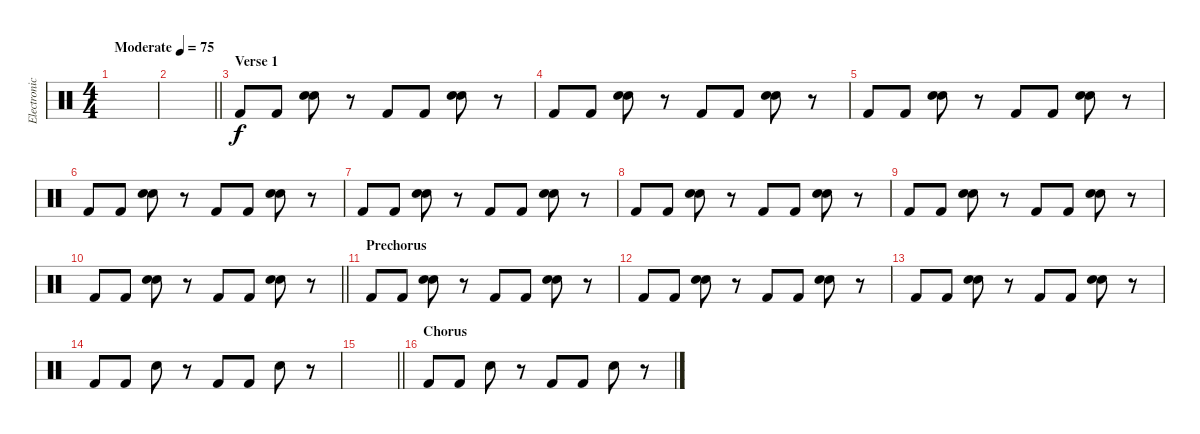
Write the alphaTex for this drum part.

\track ("Electronic Kit" "Electronic") {instrument percussion}
\staff {score}
\articulation defaults
\ts (4 4)
\tempo (75 "Moderate")
\clef neutral
\ks c
|
\barLineRight lightlight
|
\section ("" "Verse 1")
"Kick (hit) 2".8 "Kick (hit) 2".8 ("Hand Clap (hit)" "Electric Snare (hit)").8 r.8 "Kick (hit) 2".8 "Kick (hit) 2".8 ("Hand Clap (hit)" "Electric Snare (hit)").8 r.8 |
"Kick (hit) 2".8 "Kick (hit) 2".8 ("Hand Clap (hit)" "Electric Snare (hit)").8 r.8 "Kick (hit) 2".8 "Kick (hit) 2".8 ("Hand Clap (hit)" "Electric Snare (hit)").8 r.8 |
"Kick (hit) 2".8 "Kick (hit) 2".8 ("Hand Clap (hit)" "Electric Snare (hit)").8 r.8 "Kick (hit) 2".8 "Kick (hit) 2".8 ("Hand Clap (hit)" "Electric Snare (hit)").8 r.8 |
"Kick (hit) 2".8 "Kick (hit) 2".8 ("Hand Clap (hit)" "Electric Snare (hit)").8 r.8 "Kick (hit) 2".8 "Kick (hit) 2".8 ("Hand Clap (hit)" "Electric Snare (hit)").8 r.8 |
"Kick (hit) 2".8 "Kick (hit) 2".8 ("Hand Clap (hit)" "Electric Snare (hit)").8 r.8 "Kick (hit) 2".8 "Kick (hit) 2".8 ("Hand Clap (hit)" "Electric Snare (hit)").8 r.8 |
"Kick (hit) 2".8 "Kick (hit) 2".8 ("Hand Clap (hit)" "Electric Snare (hit)").8 r.8 "Kick (hit) 2".8 "Kick (hit) 2".8 ("Hand Clap (hit)" "Electric Snare (hit)").8 r.8 |
"Kick (hit) 2".8 "Kick (hit) 2".8 ("Hand Clap (hit)" "Electric Snare (hit)").8 r.8 "Kick (hit) 2".8 "Kick (hit) 2".8 ("Hand Clap (hit)" "Electric Snare (hit)").8 r.8 |
\barLineRight lightlight "Kick (hit) 2".8 "Kick (hit) 2".8
("Hand Clap (hit)" "Electric Snare (hit)").8 r.8 "Kick (hit) 2".8 "Kick (hit) 2".8 ("Hand Clap (hit)" "Electric Snare (hit)").8 r.8 |
\section ("" "Prechorus")
"Kick (hit) 2".8 "Kick (hit) 2".8 ("Hand Clap (hit)" "Electric Snare (hit)").8 r.8 "Kick (hit) 2".8 "Kick (hit) 2".8 ("Hand Clap (hit)" "Electric Snare (hit)").8 r.8 |
"Kick (hit) 2".8 "Kick (hit) 2".8 ("Hand Clap (hit)" "Electric Snare (hit)").8 r.8 "Kick (hit) 2".8 "Kick (hit) 2".8 ("Hand Clap (hit)" "Electric Snare (hit)").8 r.8 |
"Kick (hit) 2".8 "Kick (hit) 2".8 ("Hand Clap (hit)" "Electric Snare (hit)").8 r.8 "Kick (hit) 2".8 "Kick (hit) 2".8 ("Hand Clap (hit)" "Electric Snare (hit)").8 r.8 |
"Kick (hit) 2".8 "Kick (hit) 2".8 "Electric Snare (hit)".8 r.8 "Kick (hit) 2".8 "Kick (hit) 2".8 "Electric Snare (hit)".8 r.8 |
\barLineRight lightlight
|
\section ("" "Chorus")
"Kick (hit) 2".8 "Kick (hit) 2".8 "Electric Snare (hit)".8 r.8 "Kick (hit) 2".8 "Kick (hit) 2".8 "Electric Snare (hit)".8 r.8
